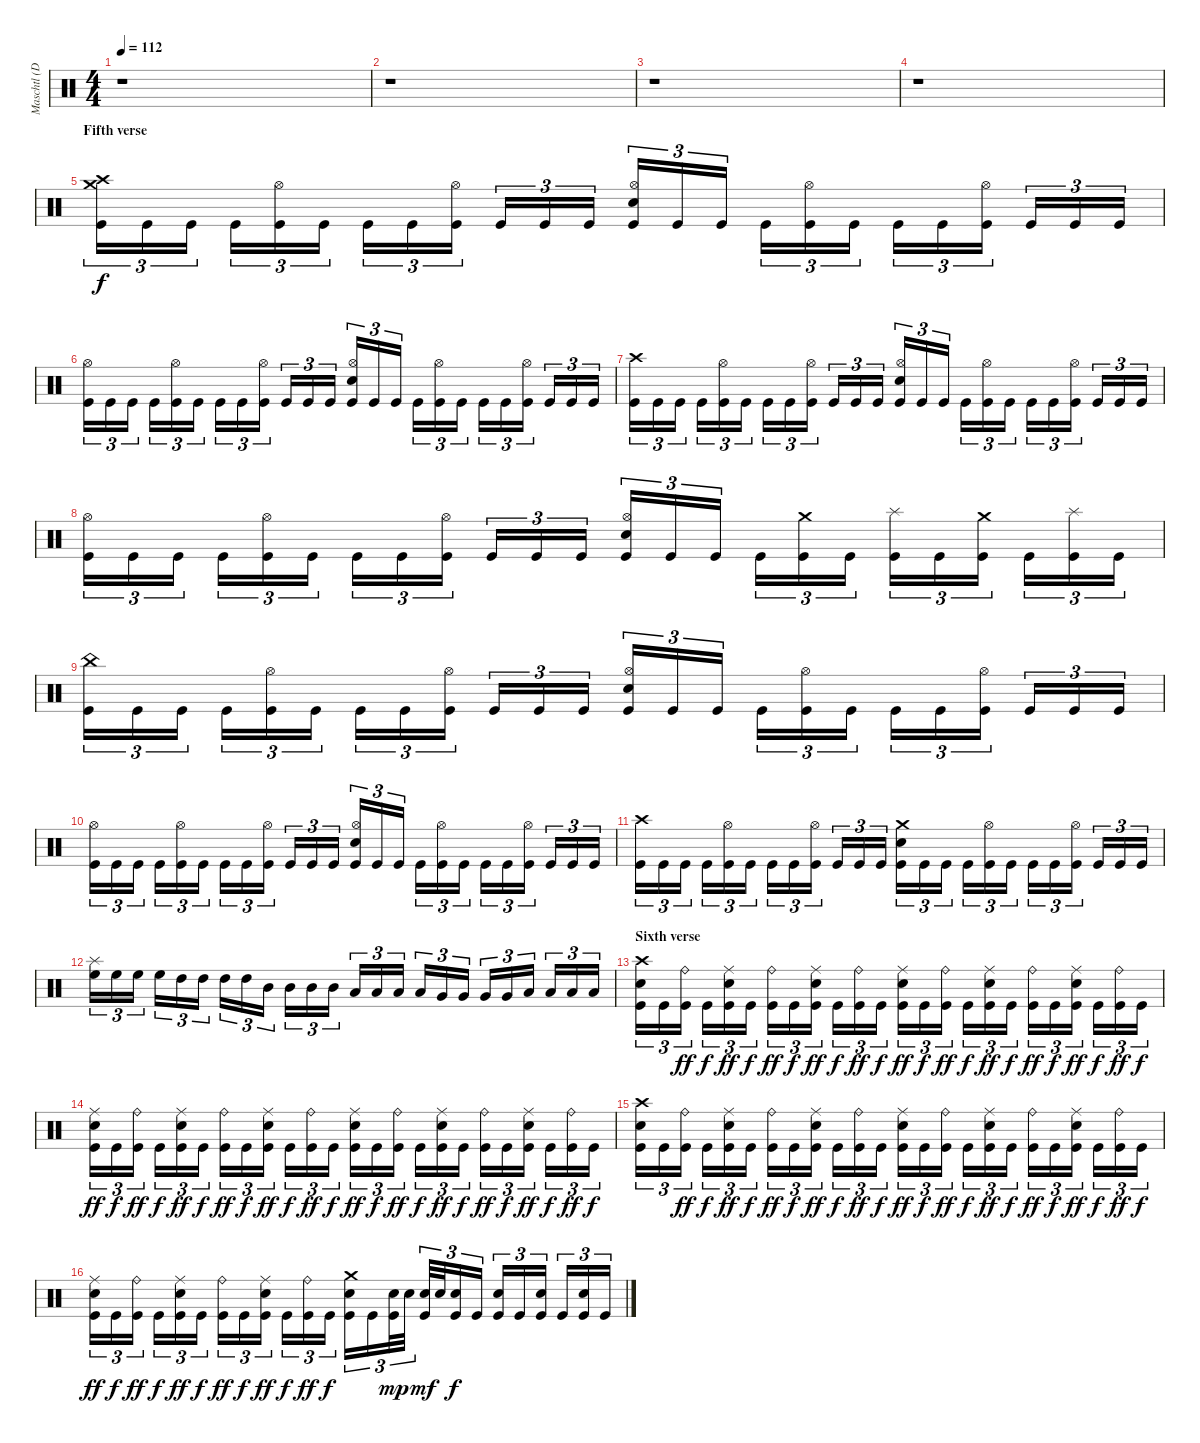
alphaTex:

\track ("Maschtl (Drums)" "Maschtl (D") {instrument percussion}
\staff {score}
\articulation defaults
\ts (4 4)
\tempo 112
\clef neutral
\ks c
r.1{dy f} |
r.1 |
r.1 |
r.1 |
\section ("" "Fifth verse")
("Crash high (hit)" "Crash medium (hit)" "Kick (hit)").16{tu (3 2)} "Kick (hit)".16{tu (3 2)} "Kick (hit)".16{tu (3 2)} "Kick (hit)".16{tu (3 2)} ("Hi-Hat (open)" "Kick (hit)").16{tu (3 2)} "Kick (hit)".16{tu (3 2)} "Kick (hit)".16{tu (3 2)} "Kick (hit)".16{tu (3 2)} ("Hi-Hat (open)" "Kick (hit)").16{tu (3 2)} "Kick (hit)".16{tu (3 2)} "Kick (hit)".16{tu (3 2)} "Kick (hit)".16{tu (3 2)} ("Hi-Hat (open)" "Electric Snare (hit)" "Kick (hit)").16{tu (3 2)} "Kick (hit)".16{tu (3 2)} "Kick (hit)".16{tu (3 2)} "Kick (hit)".16{tu (3 2)} ("Hi-Hat (open)" "Kick (hit)").16{tu (3 2)} "Kick (hit)".16{tu (3 2)} "Kick (hit)".16{tu (3 2)} "Kick (hit)".16{tu (3 2)} ("Hi-Hat (open)" "Kick (hit)").16{tu (3 2)} "Kick (hit)".16{tu (3 2)} "Kick (hit)".16{tu (3 2)} "Kick (hit)".16{tu (3 2)} |
("Hi-Hat (open)" "Kick (hit)").16{tu (3 2)} "Kick (hit)".16{tu (3 2)} "Kick (hit)".16{tu (3 2)} "Kick (hit)".16{tu (3 2)} ("Hi-Hat (open)" "Kick (hit)").16{tu (3 2)} "Kick (hit)".16{tu (3 2)} "Kick (hit)".16{tu (3 2)} "Kick (hit)".16{tu (3 2)} ("Hi-Hat (open)" "Kick (hit)").16{tu (3 2)} "Kick (hit)".16{tu (3 2)} "Kick (hit)".16{tu (3 2)} "Kick (hit)".16{tu (3 2)} ("Hi-Hat (open)" "Electric Snare (hit)" "Kick (hit)").16{tu (3 2)} "Kick (hit)".16{tu (3 2)} "Kick (hit)".16{tu (3 2)} "Kick (hit)".16{tu (3 2)} ("Hi-Hat (open)" "Kick (hit)").16{tu (3 2)} "Kick (hit)".16{tu (3 2)} "Kick (hit)".16{tu (3 2)} "Kick (hit)".16{tu (3 2)} ("Hi-Hat (open)" "Kick (hit)").16{tu (3 2)} "Kick (hit)".16{tu (3 2)} "Kick (hit)".16{tu (3 2)} "Kick (hit)".16{tu (3 2)} |
("Crash high (hit)" "Kick (hit)").16{tu (3 2)} "Kick (hit)".16{tu (3 2)} "Kick (hit)".16{tu (3 2)} "Kick (hit)".16{tu (3 2)} ("Hi-Hat (open)" "Kick (hit)").16{tu (3 2)} "Kick (hit)".16{tu (3 2)} "Kick (hit)".16{tu (3 2)} "Kick (hit)".16{tu (3 2)} ("Hi-Hat (open)" "Kick (hit)").16{tu (3 2)} "Kick (hit)".16{tu (3 2)} "Kick (hit)".16{tu (3 2)} "Kick (hit)".16{tu (3 2)} ("Hi-Hat (open)" "Electric Snare (hit)" "Kick (hit)").16{tu (3 2)} "Kick (hit)".16{tu (3 2)} "Kick (hit)".16{tu (3 2)} "Kick (hit)".16{tu (3 2)} ("Hi-Hat (open)" "Kick (hit)").16{tu (3 2)} "Kick (hit)".16{tu (3 2)} "Kick (hit)".16{tu (3 2)} "Kick (hit)".16{tu (3 2)} ("Hi-Hat (open)" "Kick (hit)").16{tu (3 2)} "Kick (hit)".16{tu (3 2)} "Kick (hit)".16{tu (3 2)} "Kick (hit)".16{tu (3 2)} |
("Hi-Hat (open)" "Kick (hit)").16{tu (3 2)} "Kick (hit)".16{tu (3 2)} "Kick (hit)".16{tu (3 2)} "Kick (hit)".16{tu (3 2)} ("Hi-Hat (open)" "Kick (hit)").16{tu (3 2)} "Kick (hit)".16{tu (3 2)} "Kick (hit)".16{tu (3 2)} "Kick (hit)".16{tu (3 2)} ("Hi-Hat (open)" "Kick (hit)").16{tu (3 2)} "Kick (hit)".16{tu (3 2)} "Kick (hit)".16{tu (3 2)} "Kick (hit)".16{tu (3 2)} ("Hi-Hat (open)" "Electric Snare (hit)" "Kick (hit)").16{tu (3 2)} "Kick (hit)".16{tu (3 2)} "Kick (hit)".16{tu (3 2)} "Kick (hit)".16{tu (3 2)} ("Crash medium (hit)" "Kick (hit)").16{tu (3 2)} "Kick (hit)".16{tu (3 2)} ("Splash (hit)" "Kick (hit)").16{tu (3 2)} "Kick (hit)".16{tu (3 2)} ("Crash medium (hit)" "Kick (hit)").16{tu (3 2)} "Kick (hit)".16{tu (3 2)} ("Splash (hit)" "Kick (hit)").16{tu (3 2)} "Kick (hit)".16{tu (3 2)} |
("China (hit)" "Kick (hit)").16{tu (3 2)} "Kick (hit)".16{tu (3 2)} "Kick (hit)".16{tu (3 2)} "Kick (hit)".16{tu (3 2)} ("Hi-Hat (open)" "Kick (hit)").16{tu (3 2)} "Kick (hit)".16{tu (3 2)} "Kick (hit)".16{tu (3 2)} "Kick (hit)".16{tu (3 2)} ("Hi-Hat (open)" "Kick (hit)").16{tu (3 2)} "Kick (hit)".16{tu (3 2)} "Kick (hit)".16{tu (3 2)} "Kick (hit)".16{tu (3 2)} ("Hi-Hat (open)" "Electric Snare (hit)" "Kick (hit)").16{tu (3 2)} "Kick (hit)".16{tu (3 2)} "Kick (hit)".16{tu (3 2)} "Kick (hit)".16{tu (3 2)} ("Hi-Hat (open)" "Kick (hit)").16{tu (3 2)} "Kick (hit)".16{tu (3 2)} "Kick (hit)".16{tu (3 2)} "Kick (hit)".16{tu (3 2)} ("Hi-Hat (open)" "Kick (hit)").16{tu (3 2)} "Kick (hit)".16{tu (3 2)} "Kick (hit)".16{tu (3 2)} "Kick (hit)".16{tu (3 2)} |
("Hi-Hat (open)" "Kick (hit)").16{tu (3 2)} "Kick (hit)".16{tu (3 2)} "Kick (hit)".16{tu (3 2)} "Kick (hit)".16{tu (3 2)} ("Hi-Hat (open)" "Kick (hit)").16{tu (3 2)} "Kick (hit)".16{tu (3 2)} "Kick (hit)".16{tu (3 2)} "Kick (hit)".16{tu (3 2)} ("Hi-Hat (open)" "Kick (hit)").16{tu (3 2)} "Kick (hit)".16{tu (3 2)} "Kick (hit)".16{tu (3 2)} "Kick (hit)".16{tu (3 2)} ("Hi-Hat (open)" "Electric Snare (hit)" "Kick (hit)").16{tu (3 2)} "Kick (hit)".16{tu (3 2)} "Kick (hit)".16{tu (3 2)} "Kick (hit)".16{tu (3 2)} ("Hi-Hat (open)" "Kick (hit)").16{tu (3 2)} "Kick (hit)".16{tu (3 2)} "Kick (hit)".16{tu (3 2)} "Kick (hit)".16{tu (3 2)} ("Hi-Hat (open)" "Kick (hit)").16{tu (3 2)} "Kick (hit)".16{tu (3 2)} "Kick (hit)".16{tu (3 2)} "Kick (hit)".16{tu (3 2)} |
("Crash high (hit)" "Kick (hit)").16{tu (3 2)} "Kick (hit)".16{tu (3 2)} "Kick (hit)".16{tu (3 2)} "Kick (hit)".16{tu (3 2)} ("Hi-Hat (open)" "Kick (hit)").16{tu (3 2)} "Kick (hit)".16{tu (3 2)} "Kick (hit)".16{tu (3 2)} "Kick (hit)".16{tu (3 2)} ("Hi-Hat (open)" "Kick (hit)").16{tu (3 2)} "Kick (hit)".16{tu (3 2)} "Kick (hit)".16{tu (3 2)} "Kick (hit)".16{tu (3 2)} ("Crash medium (hit)" "Electric Snare (hit)" "Kick (hit)").16{tu (3 2)} "Kick (hit)".16{tu (3 2)} "Kick (hit)".16{tu (3 2)} "Kick (hit)".16{tu (3 2)} ("Hi-Hat (open)" "Kick (hit)").16{tu (3 2)} "Kick (hit)".16{tu (3 2)} "Kick (hit)".16{tu (3 2)} "Kick (hit)".16{tu (3 2)} ("Hi-Hat (open)" "Kick (hit)").16{tu (3 2)} "Kick (hit)".16{tu (3 2)} "Kick (hit)".16{tu (3 2)} "Kick (hit)".16{tu (3 2)} |
("Splash (hit)" "High Floor Tom (hit)").16{tu (3 2)} "High Floor Tom (hit)".16{tu (3 2)} "High Floor Tom (hit)".16{tu (3 2)} "High Floor Tom (hit)".16{tu (3 2)} "High Tom (hit)".16{tu (3 2)} "High Tom (hit)".16{tu (3 2)} "High Tom (hit)".16{tu (3 2)} "High Tom (hit)".16{tu (3 2)} "Mid Tom (hit)".16{tu (3 2)} "Mid Tom (hit)".16{tu (3 2)} "Mid Tom (hit)".16{tu (3 2)} "Mid Tom (hit)".16{tu (3 2)} "Low Tom (hit)".16{tu (3 2)} "Low Tom (hit)".16{tu (3 2)} "Low Tom (hit)".16{tu (3 2)} "Low Tom (hit)".16{tu (3 2)} "Very Low Tom (hit)".16{tu (3 2)} "Very Low Tom (hit)".16{tu (3 2)} "Very Low Tom (hit)".16{tu (3 2)} "Very Low Tom (hit)".16{tu (3 2)} "Low Floor Tom (hit)".16{tu (3 2)} "Low Floor Tom (hit)".16{tu (3 2)} "Low Floor Tom (hit)".16{tu (3 2)} "Low Floor Tom (hit)".16{tu (3 2)} |
\section ("" "Sixth verse")
("Crash high (hit)" "Electric Snare (hit)" "Kick (hit)").16{tu (3 2)} "Kick (hit)".16{tu (3 2)} ("Ride (bell)" "Kick (hit)").16{tu (3 2) dy ff} "Kick (hit)".16{tu (3 2) dy f} ("Ride (middle)" "Electric Snare (hit)" "Kick (hit)").16{tu (3 2) dy ff} "Kick (hit)".16{tu (3 2) dy f} ("Ride (bell)" "Kick (hit)").16{tu (3 2) dy ff} "Kick (hit)".16{tu (3 2) dy f} ("Ride (middle)" "Electric Snare (hit)" "Kick (hit)").16{tu (3 2) dy ff} "Kick (hit)".16{tu (3 2) dy f} ("Ride (bell)" "Kick (hit)").16{tu (3 2) dy ff} "Kick (hit)".16{tu (3 2) dy f} ("Ride (middle)" "Electric Snare (hit)" "Kick (hit)").16{tu (3 2) dy ff} "Kick (hit)".16{tu (3 2) dy f} ("Ride (bell)" "Kick (hit)").16{tu (3 2) dy ff} "Kick (hit)".16{tu (3 2) dy f} ("Ride (middle)" "Electric Snare (hit)" "Kick (hit)").16{tu (3 2) dy ff} "Kick (hit)".16{tu (3 2) dy f} ("Ride (bell)" "Kick (hit)").16{tu (3 2) dy ff} "Kick (hit)".16{tu (3 2) dy f} ("Ride (middle)" "Electric Snare (hit)" "Kick (hit)").16{tu (3 2) dy ff} "Kick (hit)".16{tu (3 2) dy f} ("Ride (bell)" "Kick (hit)").16{tu (3 2) dy ff} "Kick (hit)".16{tu (3 2) dy f} |
("Ride (middle)" "Electric Snare (hit)" "Kick (hit)").16{tu (3 2) dy ff} "Kick (hit)".16{tu (3 2) dy f} ("Ride (bell)" "Kick (hit)").16{tu (3 2) dy ff} "Kick (hit)".16{tu (3 2) dy f} ("Ride (middle)" "Electric Snare (hit)" "Kick (hit)").16{tu (3 2) dy ff} "Kick (hit)".16{tu (3 2) dy f} ("Ride (bell)" "Kick (hit)").16{tu (3 2) dy ff} "Kick (hit)".16{tu (3 2) dy f} ("Ride (middle)" "Electric Snare (hit)" "Kick (hit)").16{tu (3 2) dy ff} "Kick (hit)".16{tu (3 2) dy f} ("Ride (bell)" "Kick (hit)").16{tu (3 2) dy ff} "Kick (hit)".16{tu (3 2) dy f} ("Ride (middle)" "Electric Snare (hit)" "Kick (hit)").16{tu (3 2) dy ff} "Kick (hit)".16{tu (3 2) dy f} ("Ride (bell)" "Kick (hit)").16{tu (3 2) dy ff} "Kick (hit)".16{tu (3 2) dy f} ("Ride (middle)" "Electric Snare (hit)" "Kick (hit)").16{tu (3 2) dy ff} "Kick (hit)".16{tu (3 2) dy f} ("Ride (bell)" "Kick (hit)").16{tu (3 2) dy ff} "Kick (hit)".16{tu (3 2) dy f} ("Ride (middle)" "Electric Snare (hit)" "Kick (hit)").16{tu (3 2) dy ff} "Kick (hit)".16{tu (3 2) dy f} ("Ride (bell)" "Kick (hit)").16{tu (3 2) dy ff} "Kick (hit)".16{tu (3 2) dy f} |
("Crash high (hit)" "Electric Snare (hit)" "Kick (hit)").16{tu (3 2)} "Kick (hit)".16{tu (3 2)} ("Ride (bell)" "Kick (hit)").16{tu (3 2) dy ff} "Kick (hit)".16{tu (3 2) dy f} ("Ride (middle)" "Electric Snare (hit)" "Kick (hit)").16{tu (3 2) dy ff} "Kick (hit)".16{tu (3 2) dy f} ("Ride (bell)" "Kick (hit)").16{tu (3 2) dy ff} "Kick (hit)".16{tu (3 2) dy f} ("Ride (middle)" "Electric Snare (hit)" "Kick (hit)").16{tu (3 2) dy ff} "Kick (hit)".16{tu (3 2) dy f} ("Ride (bell)" "Kick (hit)").16{tu (3 2) dy ff} "Kick (hit)".16{tu (3 2) dy f} ("Ride (middle)" "Electric Snare (hit)" "Kick (hit)").16{tu (3 2) dy ff} "Kick (hit)".16{tu (3 2) dy f} ("Ride (bell)" "Kick (hit)").16{tu (3 2) dy ff} "Kick (hit)".16{tu (3 2) dy f} ("Ride (middle)" "Electric Snare (hit)" "Kick (hit)").16{tu (3 2) dy ff} "Kick (hit)".16{tu (3 2) dy f} ("Ride (bell)" "Kick (hit)").16{tu (3 2) dy ff} "Kick (hit)".16{tu (3 2) dy f} ("Ride (middle)" "Electric Snare (hit)" "Kick (hit)").16{tu (3 2) dy ff} "Kick (hit)".16{tu (3 2) dy f} ("Ride (bell)" "Kick (hit)").16{tu (3 2) dy ff} "Kick (hit)".16{tu (3 2) dy f} |
("Ride (middle)" "Electric Snare (hit)" "Kick (hit)").16{tu (3 2) dy ff} "Kick (hit)".16{tu (3 2) dy f} ("Ride (bell)" "Kick (hit)").16{tu (3 2) dy ff} "Kick (hit)".16{tu (3 2) dy f} ("Ride (middle)" "Electric Snare (hit)" "Kick (hit)").16{tu (3 2) dy ff} "Kick (hit)".16{tu (3 2) dy f} ("Ride (bell)" "Kick (hit)").16{tu (3 2) dy ff} "Kick (hit)".16{tu (3 2) dy f} ("Ride (middle)" "Electric Snare (hit)" "Kick (hit)").16{tu (3 2) dy ff} "Kick (hit)".16{tu (3 2) dy f} ("Ride (bell)" "Kick (hit)").16{tu (3 2) dy ff} "Kick (hit)".16{tu (3 2) dy f} ("Crash medium (hit)" "Electric Snare (hit)" "Kick (hit)").16{tu (3 2)} "Kick (hit)".16{tu (3 2)} ("Electric Snare (hit)" "Kick (hit)").32{tu (3 2) dy mp} "Electric Snare (hit)".32{tu (3 2)} ("Electric Snare (hit)" "Kick (hit)").32{tu (3 2) dy mf} "Electric Snare (hit)".32{tu (3 2)} ("Electric Snare (hit)" "Kick (hit)").16{tu (3 2) dy f} "Kick (hit)".16{tu (3 2)} ("Electric Snare (hit)" "Kick (hit)").16{tu (3 2)} "Kick (hit)".16{tu (3 2)} ("Electric Snare (hit)" "Kick (hit)").16{tu (3 2)} "Kick (hit)".16{tu (3 2)} ("Electric Snare (hit)" "Kick (hit)").16{tu (3 2)} "Kick (hit)".16{tu (3 2)}
